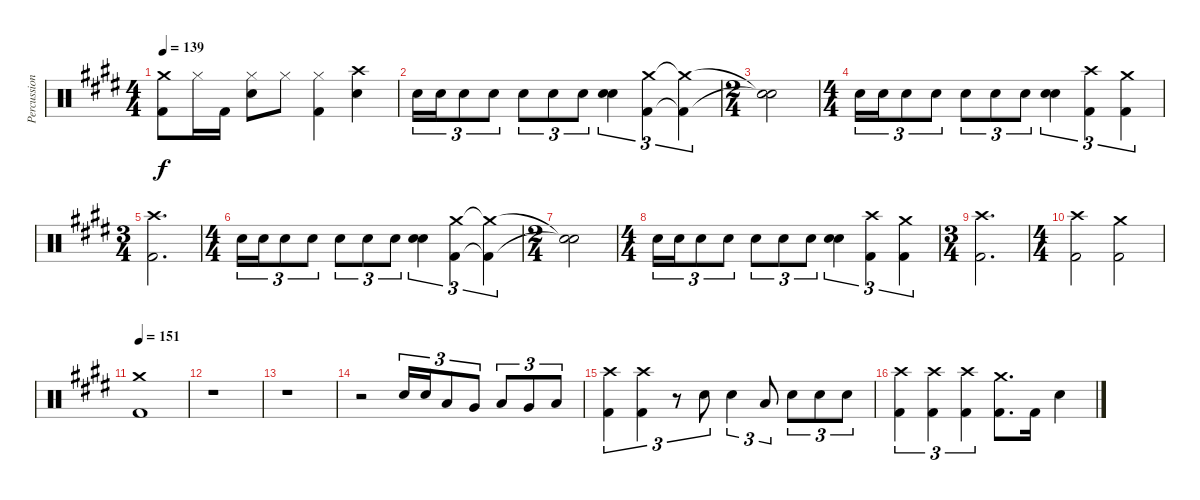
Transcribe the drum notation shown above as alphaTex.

\track ("Percussion" "Percussion") {instrument percussion}
\staff {score}
\articulation defaults
\ts (4 4)
\tempo 139
\clef neutral
\ks e
("Crash medium (hit)" "Kick (hit) 2").8{dy f} "Hi-Hat (closed)".16 "Kick (hit) 2".16 ("Hi-Hat (closed)" "Snare (hit) 2").8 "Hi-Hat (closed)".8 ("Hi-Hat (closed)" "Kick (hit) 2").4 ("Crash high (hit)" "Snare (hit) 2").4 |
"Snare (hit) 2".16{tu (3 2)} "Snare (hit) 2".16{tu (3 2)} "Snare (hit) 2".8{tu (3 2)} "Snare (hit) 2".8{tu (3 2)} "Snare (hit) 2".8{tu (3 2)} "Snare (hit) 2".8{tu (3 2)} "Snare (hit) 2".8{tu (3 2)} ("Snare (hit) 2" "Snare (hit) 2").4{tu (3 2)} ("Crash medium (hit)" "Kick (hit) 2").4{tu (3 2)} ("Crash medium (hit)"{t} "Kick (hit) 2"{t}).4{tu (3 2)} |
\ts (2 4)
("Snare (hit)"{t} "Snare (hit)"{t}).2 |
\ts (4 4)
"Snare (hit) 2".16{tu (3 2)} "Snare (hit) 2".16{tu (3 2)} "Snare (hit) 2".8{tu (3 2)} "Snare (hit) 2".8{tu (3 2)} "Snare (hit) 2".8{tu (3 2)} "Snare (hit) 2".8{tu (3 2)} "Snare (hit) 2".8{tu (3 2)} ("Snare (hit) 2" "Snare (hit) 2").4{tu (3 2)} ("Crash high (hit)" "Kick (hit) 2").4{tu (3 2)} ("Crash medium (hit)" "Kick (hit) 2").4{tu (3 2)} |
\ts (3 4)
("Crash high (hit)" "Kick (hit) 2").2{d} |
\ts (4 4)
"Snare (hit) 2".16{tu (3 2)} "Snare (hit) 2".16{tu (3 2)} "Snare (hit) 2".8{tu (3 2)} "Snare (hit) 2".8{tu (3 2)} "Snare (hit) 2".8{tu (3 2)} "Snare (hit) 2".8{tu (3 2)} "Snare (hit) 2".8{tu (3 2)} ("Snare (hit) 2" "Snare (hit) 2").4{tu (3 2)} ("Crash medium (hit)" "Kick (hit) 2").4{tu (3 2)} ("Crash medium (hit)"{t} "Kick (hit) 2"{t}).4{tu (3 2)} |
\ts (2 4)
("Snare (hit)"{t} "Snare (hit)"{t}).2 |
\ts (4 4)
"Snare (hit) 2".16{tu (3 2)} "Snare (hit) 2".16{tu (3 2)} "Snare (hit) 2".8{tu (3 2)} "Snare (hit) 2".8{tu (3 2)} "Snare (hit) 2".8{tu (3 2)} "Snare (hit) 2".8{tu (3 2)} "Snare (hit) 2".8{tu (3 2)} ("Snare (hit) 2" "Snare (hit) 2").4{tu (3 2)} ("Crash high (hit)" "Kick (hit) 2").4{tu (3 2)} ("Crash medium (hit)" "Kick (hit) 2").4{tu (3 2)} |
\ts (3 4)
("Crash high (hit)" "Kick (hit) 2").2{d} |
\ts (4 4)
("Crash high (hit)" "Kick (hit) 2").2 ("Crash medium (hit)" "Kick (hit) 2").2 |
\tempo 151
("Crash medium (hit)" "Kick (hit) 2").1 |
r.1 |
r.1 |
r.2 "Snare (hit) 2".16{tu (3 2)} "Snare (hit) 2".16{tu (3 2)} "Low Tom (hit)".8{tu (3 2)} "Very Low Tom (hit)".8{tu (3 2)} "Low Tom (hit)".8{tu (3 2)} "Very Low Tom (hit)".8{tu (3 2)} "Low Floor Tom (hit)".8{tu (3 2)} |
("Crash high (hit)" "Kick (hit) 2").4{tu (3 2)} ("Crash high (hit)" "Kick (hit) 2").4{tu (3 2)} r.8{tu (3 2)} "Snare (hit) 2".8{tu (3 2)} "Snare (hit) 2".4{tu (3 2)} "Low Tom (hit)".8{tu (3 2)} "Snare (hit) 2".8{tu (3 2)} "Snare (hit) 2".8{tu (3 2)} "Snare (hit) 2".8{tu (3 2)} |
("Crash high (hit)" "Kick (hit) 2").4{tu (3 2)} ("Crash high (hit)" "Kick (hit) 2").4{tu (3 2)} ("Crash high (hit)" "Kick (hit) 2").4{tu (3 2)} ("Crash medium (hit)" "Kick (hit) 2").8{d} "Kick (hit) 2".16 "Snare (hit) 2".4
